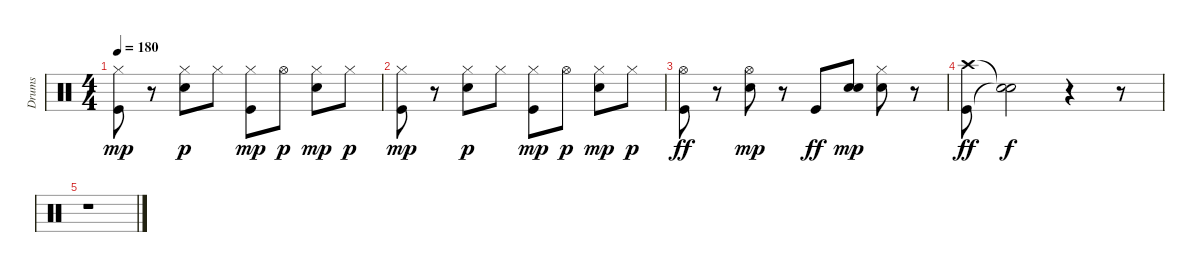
\track ("Drums" "Drums") {instrument percussion}
\staff {score}
\articulation defaults
\ts (4 4)
\tempo 180
\clef neutral
\ks c
("Kick (hit)" "Hi-Hat (closed)").8{dy mp} r.8 ("Snare (hit) 2" "Hi-Hat (closed)").8{dy p} "Hi-Hat (closed)".8 ("Kick (hit)" "Hi-Hat (closed)").8{dy mp} "Hi-Hat (open)".8{dy p} ("Snare (hit) 2" "Hi-Hat (closed)").8{dy mp} "Hi-Hat (closed)".8{dy p} |
("Kick (hit)" "Hi-Hat (closed)").8{dy mp} r.8 ("Snare (hit) 2" "Hi-Hat (closed)").8{dy p} "Hi-Hat (closed)".8 ("Kick (hit)" "Hi-Hat (closed)").8{dy mp} "Hi-Hat (open)".8{dy p} ("Snare (hit) 2" "Hi-Hat (closed)").8{dy mp} "Hi-Hat (closed)".8{dy p} |
("Hi-Hat (open)" "Kick (hit)").8{dy ff} r.8 ("Snare (hit) 2" "Hi-Hat (open)").8{dy mp} r.8 "Kick (hit)".8{dy ff} ("Snare (hit) 2" "Snare (hit) 2").8{dy mp} ("Snare (hit) 2" "Hi-Hat (closed)").8 r.8 |
("Crash high (hit)" "Kick (hit)").8{dy ff} ("Snare (hit)"{t} "Snare (hit)"{t}).2{dy f} r.4 r.8 |
r.1
